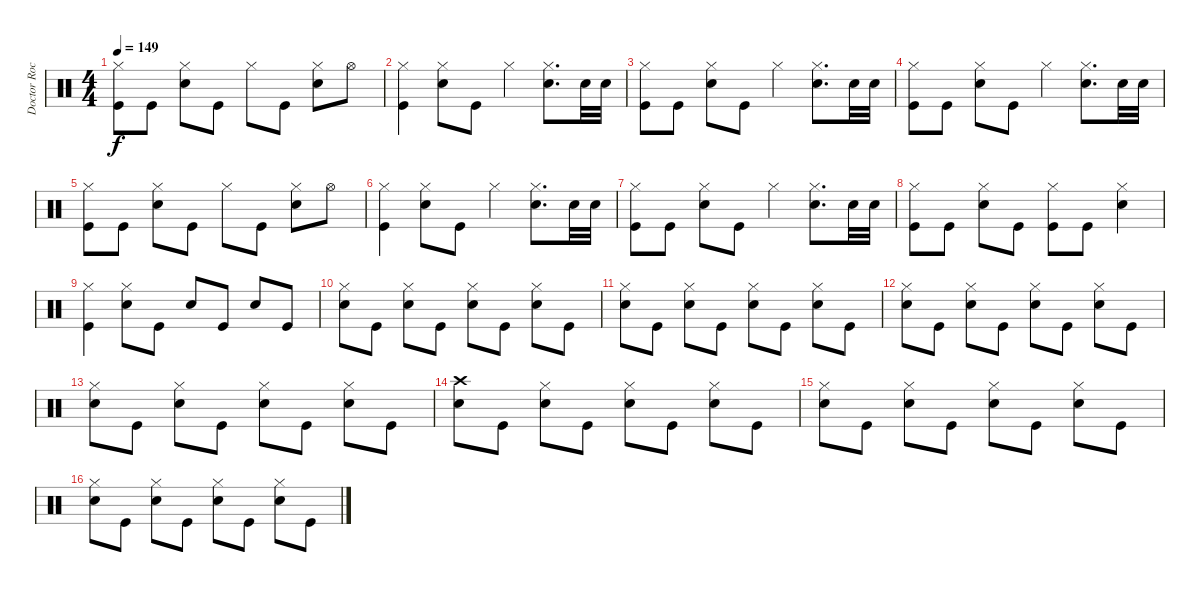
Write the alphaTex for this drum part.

\track ("Doctor Rock" "Doctor Roc") {instrument percussion}
\staff {score}
\articulation defaults
\ts (4 4)
\tempo 149
\clef neutral
\ks c
("Hi-Hat (closed)" "Kick (hit)").8{dy f} "Kick (hit)".8 ("Hi-Hat (closed)" "Snare (hit) 2").8 "Kick (hit)".8 "Hi-Hat (closed)".8 "Kick (hit)".8 ("Hi-Hat (closed)" "Snare (hit) 2").8 "Hi-Hat (open)".8 |
("Hi-Hat (closed)" "Kick (hit)").4 ("Hi-Hat (closed)" "Snare (hit) 2").8 "Kick (hit)".8 "Hi-Hat (closed)".4 ("Hi-Hat (closed)" "Snare (hit) 2").8{d} "Snare (hit) 2".32 "Snare (hit) 2".32 |
("Hi-Hat (closed)" "Kick (hit)").8 "Kick (hit)".8 ("Hi-Hat (closed)" "Snare (hit) 2").8 "Kick (hit)".8 "Hi-Hat (closed)".4 ("Hi-Hat (closed)" "Snare (hit) 2").8{d} "Snare (hit) 2".32 "Snare (hit) 2".32 |
("Hi-Hat (closed)" "Kick (hit)").8 "Kick (hit)".8 ("Hi-Hat (closed)" "Snare (hit) 2").8 "Kick (hit)".8 "Hi-Hat (closed)".4 ("Hi-Hat (closed)" "Snare (hit) 2").8{d} "Snare (hit) 2".32 "Snare (hit) 2".32 |
("Hi-Hat (closed)" "Kick (hit)").8 "Kick (hit)".8 ("Hi-Hat (closed)" "Snare (hit) 2").8 "Kick (hit)".8 "Hi-Hat (closed)".8 "Kick (hit)".8 ("Hi-Hat (closed)" "Snare (hit) 2").8 "Hi-Hat (open)".8 |
("Hi-Hat (closed)" "Kick (hit)").4 ("Hi-Hat (closed)" "Snare (hit) 2").8 "Kick (hit)".8 "Hi-Hat (closed)".4 ("Hi-Hat (closed)" "Snare (hit) 2").8{d} "Snare (hit) 2".32 "Snare (hit) 2".32 |
("Hi-Hat (closed)" "Kick (hit)").8 "Kick (hit)".8 ("Hi-Hat (closed)" "Snare (hit) 2").8 "Kick (hit)".8 "Hi-Hat (closed)".4 ("Hi-Hat (closed)" "Snare (hit) 2").8{d} "Snare (hit) 2".32 "Snare (hit) 2".32 |
("Hi-Hat (closed)" "Kick (hit)").8 "Kick (hit)".8 ("Hi-Hat (closed)" "Snare (hit) 2").8 "Kick (hit)".8 ("Hi-Hat (closed)" "Kick (hit)").8 "Kick (hit)".8 ("Hi-Hat (closed)" "Snare (hit) 2").4 |
("Hi-Hat (closed)" "Kick (hit)").4 ("Hi-Hat (closed)" "Snare (hit) 2").8 "Kick (hit)".8 "Snare (hit) 2".8 "Kick (hit)".8 "Snare (hit) 2".8 "Kick (hit)".8 |
("Hi-Hat (closed)" "Snare (hit) 2").8 "Kick (hit)".8 ("Hi-Hat (closed)" "Snare (hit) 2").8 "Kick (hit)".8 ("Hi-Hat (closed)" "Snare (hit) 2").8 "Kick (hit)".8 ("Hi-Hat (closed)" "Snare (hit) 2").8 "Kick (hit)".8 |
("Hi-Hat (closed)" "Snare (hit) 2").8 "Kick (hit)".8 ("Hi-Hat (closed)" "Snare (hit) 2").8 "Kick (hit)".8 ("Hi-Hat (closed)" "Snare (hit) 2").8 "Kick (hit)".8 ("Hi-Hat (closed)" "Snare (hit) 2").8 "Kick (hit)".8 |
("Hi-Hat (closed)" "Snare (hit) 2").8 "Kick (hit)".8 ("Hi-Hat (closed)" "Snare (hit) 2").8 "Kick (hit)".8 ("Hi-Hat (closed)" "Snare (hit) 2").8 "Kick (hit)".8 ("Hi-Hat (closed)" "Snare (hit) 2").8 "Kick (hit)".8 |
("Hi-Hat (closed)" "Snare (hit) 2").8 "Kick (hit)".8 ("Hi-Hat (closed)" "Snare (hit) 2").8 "Kick (hit)".8 ("Hi-Hat (closed)" "Snare (hit) 2").8 "Kick (hit)".8 ("Hi-Hat (closed)" "Snare (hit) 2").8 "Kick (hit)".8 |
("Crash high (hit)" "Snare (hit) 2").8 "Kick (hit)".8 ("Hi-Hat (closed)" "Snare (hit) 2").8 "Kick (hit)".8 ("Hi-Hat (closed)" "Snare (hit) 2").8 "Kick (hit)".8 ("Hi-Hat (closed)" "Snare (hit) 2").8 "Kick (hit)".8 |
("Hi-Hat (closed)" "Snare (hit) 2").8 "Kick (hit)".8 ("Hi-Hat (closed)" "Snare (hit) 2").8 "Kick (hit)".8 ("Hi-Hat (closed)" "Snare (hit) 2").8 "Kick (hit)".8 ("Hi-Hat (closed)" "Snare (hit) 2").8 "Kick (hit)".8 |
("Hi-Hat (closed)" "Snare (hit) 2").8 "Kick (hit)".8 ("Hi-Hat (closed)" "Snare (hit) 2").8 "Kick (hit)".8 ("Hi-Hat (closed)" "Snare (hit) 2").8 "Kick (hit)".8 ("Hi-Hat (closed)" "Snare (hit) 2").8 "Kick (hit)".8
